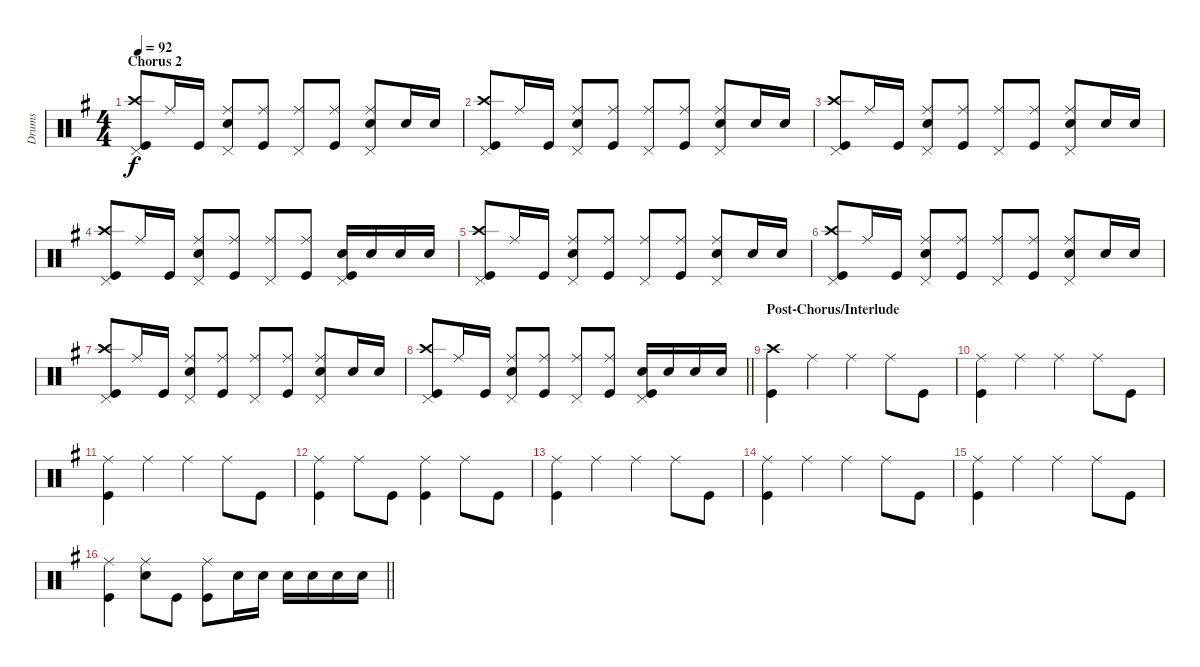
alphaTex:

\track ("Drums" "Drums") {instrument percussion}
\staff {score}
\articulation defaults
\ts (4 4)
\section ("" "Chorus 2")
\tempo 92
\clef neutral
\ks eminor
("Pedal Hi-Hat (hit)" "Crash high (hit)" "Kick (hit)").8{dy f} "Ride (middle)".16 "Kick (hit)".16 ("Pedal Hi-Hat (hit)" "Ride (middle)" "Snare (hit) 2").8 ("Ride (middle)" "Kick (hit)").8 ("Pedal Hi-Hat (hit)" "Ride (middle)").8 ("Ride (middle)" "Kick (hit)").8 ("Pedal Hi-Hat (hit)" "Ride (middle)" "Snare (hit) 2").8 "Snare (hit) 2".16 "Snare (hit) 2".16 |
("Pedal Hi-Hat (hit)" "Crash high (hit)" "Kick (hit)").8 "Ride (middle)".16 "Kick (hit)".16 ("Pedal Hi-Hat (hit)" "Ride (middle)" "Snare (hit) 2").8 ("Ride (middle)" "Kick (hit)").8 ("Pedal Hi-Hat (hit)" "Ride (middle)").8 ("Ride (middle)" "Kick (hit)").8 ("Pedal Hi-Hat (hit)" "Ride (middle)" "Snare (hit) 2").8 "Snare (hit) 2".16 "Snare (hit) 2".16 |
("Pedal Hi-Hat (hit)" "Crash high (hit)" "Kick (hit)").8 "Ride (middle)".16 "Kick (hit)".16 ("Pedal Hi-Hat (hit)" "Ride (middle)" "Snare (hit) 2").8 ("Ride (middle)" "Kick (hit)").8 ("Pedal Hi-Hat (hit)" "Ride (middle)").8 ("Ride (middle)" "Kick (hit)").8 ("Pedal Hi-Hat (hit)" "Ride (middle)" "Snare (hit) 2").8 "Snare (hit) 2".16 "Snare (hit) 2".16 |
("Pedal Hi-Hat (hit)" "Crash high (hit)" "Kick (hit)").8 "Ride (middle)".16 "Kick (hit)".16 ("Pedal Hi-Hat (hit)" "Ride (middle)" "Snare (hit) 2").8 ("Ride (middle)" "Kick (hit)").8 ("Pedal Hi-Hat (hit)" "Ride (middle)").8 ("Ride (middle)" "Kick (hit)").8 ("Pedal Hi-Hat (hit)" "Snare (hit) 2" "Kick (hit)").16 "Snare (hit) 2".16 "Snare (hit) 2".16 "Snare (hit) 2".16 |
("Pedal Hi-Hat (hit)" "Crash high (hit)" "Kick (hit)").8 "Ride (middle)".16 "Kick (hit)".16 ("Pedal Hi-Hat (hit)" "Ride (middle)" "Snare (hit) 2").8 ("Ride (middle)" "Kick (hit)").8 ("Pedal Hi-Hat (hit)" "Ride (middle)").8 ("Ride (middle)" "Kick (hit)").8 ("Pedal Hi-Hat (hit)" "Ride (middle)" "Snare (hit) 2").8 "Snare (hit) 2".16 "Snare (hit) 2".16 |
("Pedal Hi-Hat (hit)" "Crash high (hit)" "Kick (hit)").8 "Ride (middle)".16 "Kick (hit)".16 ("Pedal Hi-Hat (hit)" "Ride (middle)" "Snare (hit) 2").8 ("Ride (middle)" "Kick (hit)").8 ("Pedal Hi-Hat (hit)" "Ride (middle)").8 ("Ride (middle)" "Kick (hit)").8 ("Pedal Hi-Hat (hit)" "Ride (middle)" "Snare (hit) 2").8 "Snare (hit) 2".16 "Snare (hit) 2".16 |
("Pedal Hi-Hat (hit)" "Crash high (hit)" "Kick (hit)").8 "Ride (middle)".16 "Kick (hit)".16 ("Pedal Hi-Hat (hit)" "Ride (middle)" "Snare (hit) 2").8 ("Ride (middle)" "Kick (hit)").8 ("Pedal Hi-Hat (hit)" "Ride (middle)").8 ("Ride (middle)" "Kick (hit)").8 ("Pedal Hi-Hat (hit)" "Ride (middle)" "Snare (hit) 2").8 "Snare (hit) 2".16 "Snare (hit) 2".16 |
\barLineRight lightlight
("Pedal Hi-Hat (hit)" "Crash high (hit)" "Kick (hit)").8 "Ride (middle)".16 "Kick (hit)".16 ("Pedal Hi-Hat (hit)" "Ride (middle)" "Snare (hit) 2").8 ("Ride (middle)" "Kick (hit)").8 ("Pedal Hi-Hat (hit)" "Ride (middle)").8 ("Ride (middle)" "Kick (hit)").8 ("Pedal Hi-Hat (hit)" "Snare (hit) 2" "Kick (hit)").16 "Snare (hit) 2".16 "Snare (hit) 2".16 "Snare (hit) 2".16 |
\section ("" "Post-Chorus/Interlude")
("Crash high (hit)" "Kick (hit)").4 "Ride (middle)".4 "Ride (middle)".4 "Ride (middle)".8 "Kick (hit)".8 |
("Ride (middle)" "Kick (hit)").4 "Ride (middle)".4 "Ride (middle)".4 "Ride (middle)".8 "Kick (hit)".8 |
("Ride (middle)" "Kick (hit)").4 "Ride (middle)".4 "Ride (middle)".4 "Ride (middle)".8 "Kick (hit)".8 |
("Ride (middle)" "Kick (hit)").4 "Ride (middle)".8 "Kick (hit)".8 ("Ride (middle)" "Kick (hit)").4 "Ride (middle)".8 "Kick (hit)".8 |
("Ride (middle)" "Kick (hit)").4 "Ride (middle)".4 "Ride (middle)".4 "Ride (middle)".8 "Kick (hit)".8 |
("Ride (middle)" "Kick (hit)").4 "Ride (middle)".4 "Ride (middle)".4 "Ride (middle)".8 "Kick (hit)".8 |
("Ride (middle)" "Kick (hit)").4 "Ride (middle)".4 "Ride (middle)".4 "Ride (middle)".8 "Kick (hit)".8 |
\barLineRight lightlight
("Ride (middle)" "Kick (hit)").4 ("Ride (middle)" "Snare (hit) 2").8 "Kick (hit)".8 ("Ride (middle)" "Kick (hit)").8 "Snare (hit) 2".16 "Snare (hit) 2".16 "Snare (hit) 2".16 "Snare (hit) 2".16 "Snare (hit) 2".16 "Snare (hit) 2".16
